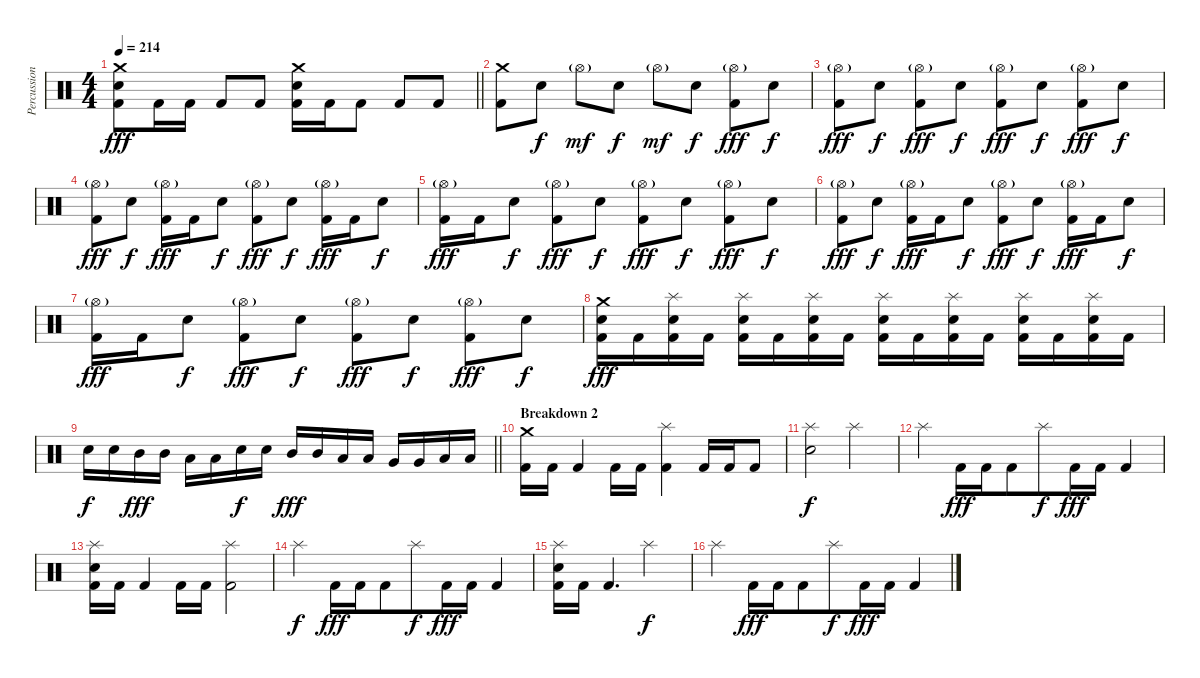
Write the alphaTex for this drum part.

\track ("Percussion" "Percussion") {instrument percussion}
\staff {score}
\articulation defaults
\ts (4 4)
\tempo 214
\clef neutral
\barLineRight lightlight
\ks c
("Crash medium (hit)" "Electric Snare (hit)" "Kick (hit) 2").8{dy fff} "Kick (hit) 2".16 "Kick (hit) 2".16 "Kick (hit) 2".8 "Kick (hit) 2".8 ("Crash medium (hit)" "Electric Snare (hit)" "Kick (hit) 2").16 "Kick (hit) 2".16 "Kick (hit) 2".8 "Kick (hit) 2".8 "Kick (hit) 2".8 |
\section ("" "")
("Crash medium (hit)" "Kick (hit) 2").8 "Electric Snare (hit)".8{dy f} "Hi-Hat (open)"{g}.8{dy mf} "Electric Snare (hit)".8{dy f} "Hi-Hat (open)"{g}.8{dy mf} "Electric Snare (hit)".8{dy f} ("Hi-Hat (open)"{g} "Kick (hit) 2").8{dy fff} "Electric Snare (hit)".8{dy f} |
("Hi-Hat (open)"{g} "Kick (hit) 2").8{dy fff} "Electric Snare (hit)".8{dy f} ("Hi-Hat (open)"{g} "Kick (hit) 2").8{dy fff} "Electric Snare (hit)".8{dy f} ("Hi-Hat (open)"{g} "Kick (hit) 2").8{dy fff} "Electric Snare (hit)".8{dy f} ("Hi-Hat (open)"{g} "Kick (hit) 2").8{dy fff} "Electric Snare (hit)".8{dy f} |
("Hi-Hat (open)"{g} "Kick (hit) 2").8{dy fff} "Electric Snare (hit)".8{dy f} ("Hi-Hat (open)"{g} "Kick (hit) 2").16{dy fff} "Kick (hit) 2".16 "Electric Snare (hit)".8{dy f} ("Hi-Hat (open)"{g} "Kick (hit) 2").8{dy fff} "Electric Snare (hit)".8{dy f} ("Hi-Hat (open)"{g} "Kick (hit) 2").16{dy fff} "Kick (hit) 2".16 "Electric Snare (hit)".8{dy f} |
("Hi-Hat (open)"{g} "Kick (hit) 2").16{dy fff} "Kick (hit) 2".16 "Electric Snare (hit)".8{dy f} ("Hi-Hat (open)"{g} "Kick (hit) 2").8{dy fff} "Electric Snare (hit)".8{dy f} ("Hi-Hat (open)"{g} "Kick (hit) 2").8{dy fff} "Electric Snare (hit)".8{dy f} ("Hi-Hat (open)"{g} "Kick (hit) 2").8{dy fff} "Electric Snare (hit)".8{dy f} |
("Hi-Hat (open)"{g} "Kick (hit) 2").8{dy fff} "Electric Snare (hit)".8{dy f} ("Hi-Hat (open)"{g} "Kick (hit) 2").16{dy fff} "Kick (hit) 2".16 "Electric Snare (hit)".8{dy f} ("Hi-Hat (open)"{g} "Kick (hit) 2").8{dy fff} "Electric Snare (hit)".8{dy f} ("Hi-Hat (open)"{g} "Kick (hit) 2").16{dy fff} "Kick (hit) 2".16 "Electric Snare (hit)".8{dy f} |
("Hi-Hat (open)"{g} "Kick (hit) 2").16{dy fff} "Kick (hit) 2".16 "Electric Snare (hit)".8{dy f} ("Hi-Hat (open)"{g} "Kick (hit) 2").8{dy fff} "Electric Snare (hit)".8{dy f} ("Hi-Hat (open)"{g} "Kick (hit) 2").8{dy fff} "Electric Snare (hit)".8{dy f} ("Hi-Hat (open)"{g} "Kick (hit) 2").8{dy fff} "Electric Snare (hit)".8{dy f} |
("Crash medium (hit)" "Electric Snare (hit)" "Kick (hit) 2").16{dy fff} "Kick (hit) 2".16 ("Splash (hit)" "Electric Snare (hit)" "Kick (hit) 2").16 "Kick (hit) 2".16 ("Splash (hit)" "Electric Snare (hit)" "Kick (hit) 2").16 "Kick (hit) 2".16 ("Splash (hit)" "Electric Snare (hit)" "Kick (hit) 2").16 "Kick (hit) 2".16 ("Splash (hit)" "Electric Snare (hit)" "Kick (hit) 2").16 "Kick (hit) 2".16 ("Splash (hit)" "Electric Snare (hit)" "Kick (hit) 2").16 "Kick (hit) 2".16 ("Splash (hit)" "Electric Snare (hit)" "Kick (hit) 2").16 "Kick (hit) 2".16 ("Splash (hit)" "Electric Snare (hit)" "Kick (hit) 2").16 "Kick (hit) 2".16 |
\barLineRight lightlight "Electric Snare (hit)".16{dy f} "Electric Snare (hit)".16 "Mid Tom (hit)".16{dy fff} "Mid Tom (hit)".16 "Low Tom (hit)".16 "Low Tom (hit)".16 "Electric Snare (hit)".16{dy f} "Electric Snare (hit)".16 "Mid Tom (hit)".16{dy fff} "Mid Tom (hit)".16 "Low Tom (hit)".16 "Low Tom (hit)".16 "Very Low Tom (hit)".16 "Very Low Tom (hit)".16 "Low Floor Tom (hit)".16 "Low Floor Tom (hit)".16
|
\section ("" "Breakdown 2")
("Crash medium (hit)" "Kick (hit) 2").16 "Kick (hit) 2".16 "Kick (hit) 2".4 "Kick (hit) 2".16 "Kick (hit) 2".16{beam merge} ("Splash (hit)" "Kick (hit) 2").4 "Kick (hit) 2".16 "Kick (hit) 2".16 "Kick (hit) 2".8 |
("Splash (hit)" "Electric Snare (hit)").2{dy f beam merge} "Splash (hit)".2 |
"Splash (hit)".4 "Kick (hit) 2".16{dy fff} "Kick (hit) 2".16 "Kick (hit) 2".8{beam merge} "Splash (hit)".8{dy f} "Kick (hit) 2".16{dy fff} "Kick (hit) 2".16 "Kick (hit) 2".4 |
("Splash (hit)" "Electric Snare (hit)" "Kick (hit) 2").16 "Kick (hit) 2".16 "Kick (hit) 2".4 "Kick (hit) 2".16 "Kick (hit) 2".16{beam merge} ("Splash (hit)" "Kick (hit) 2").2 |
"Splash (hit)".4{dy f} "Kick (hit) 2".16{dy fff} "Kick (hit) 2".16 "Kick (hit) 2".8{beam merge} "Splash (hit)".8{dy f} "Kick (hit) 2".16{dy fff} "Kick (hit) 2".16 "Kick (hit) 2".4 |
("Splash (hit)" "Electric Snare (hit)" "Kick (hit) 2").16 "Kick (hit) 2".16 "Kick (hit) 2".4{d} "Splash (hit)".2{dy f} |
"Splash (hit)".4 "Kick (hit) 2".16{dy fff} "Kick (hit) 2".16 "Kick (hit) 2".8{beam merge} "Splash (hit)".8{dy f} "Kick (hit) 2".16{dy fff} "Kick (hit) 2".16 "Kick (hit) 2".4
